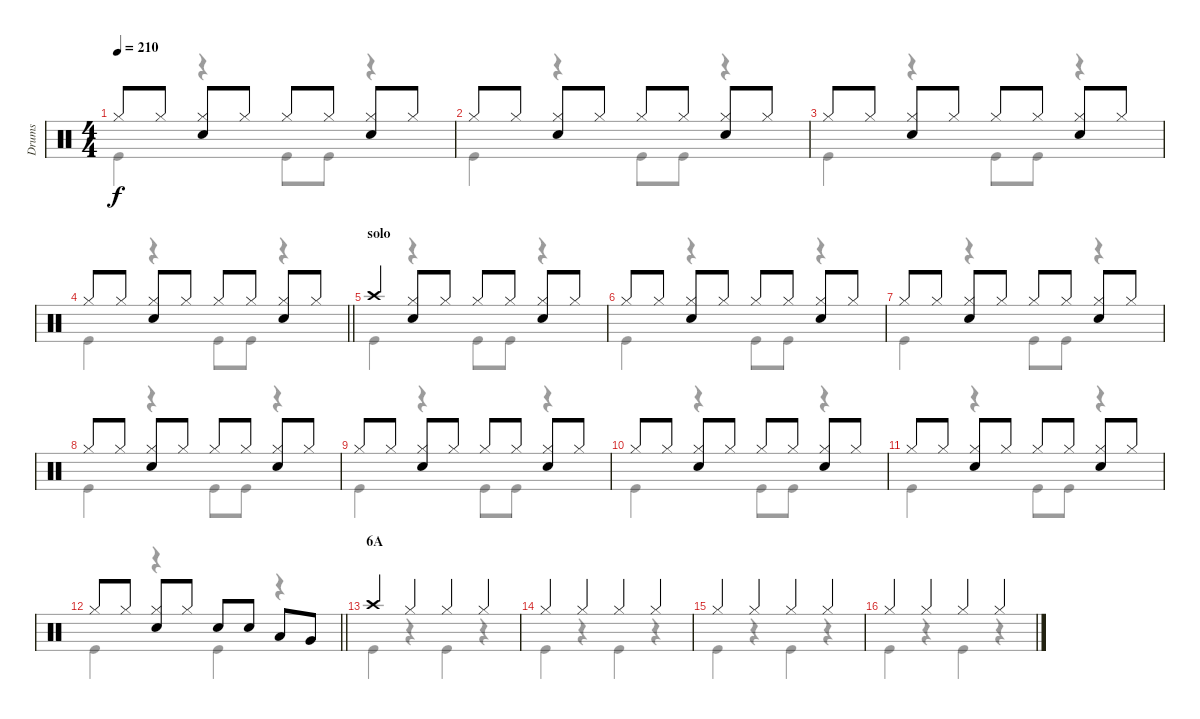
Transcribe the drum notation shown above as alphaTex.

\track ("Drums" "Drums") {instrument percussion}
\staff {score}
\articulation defaults
\voice
\ts (4 4)
\tempo 210
\clef neutral
\ks c "Hi-Hat (closed)".8{dy f} "Hi-Hat (closed)".8
("Hi-Hat (closed)" "Snare (hit) 2").8 "Hi-Hat (closed)".8 "Hi-Hat (closed)".8 "Hi-Hat (closed)".8 ("Hi-Hat (closed)" "Snare (hit) 2").8 "Hi-Hat (closed)".8 |
"Hi-Hat (closed)".8 "Hi-Hat (closed)".8 ("Hi-Hat (closed)" "Snare (hit) 2").8 "Hi-Hat (closed)".8 "Hi-Hat (closed)".8 "Hi-Hat (closed)".8 ("Hi-Hat (closed)" "Snare (hit) 2").8 "Hi-Hat (closed)".8 |
"Hi-Hat (closed)".8 "Hi-Hat (closed)".8 ("Hi-Hat (closed)" "Snare (hit) 2").8 "Hi-Hat (closed)".8 "Hi-Hat (closed)".8 "Hi-Hat (closed)".8 ("Hi-Hat (closed)" "Snare (hit) 2").8 "Hi-Hat (closed)".8 |
\barLineRight lightlight "Hi-Hat (closed)".8 "Hi-Hat (closed)".8
("Hi-Hat (closed)" "Snare (hit) 2").8 "Hi-Hat (closed)".8 "Hi-Hat (closed)".8 "Hi-Hat (closed)".8 ("Hi-Hat (closed)" "Snare (hit) 2").8 "Hi-Hat (closed)".8 |
\section ("" "solo")
"Crash high (hit)".4 ("Hi-Hat (closed)" "Snare (hit) 2").8 "Hi-Hat (closed)".8 "Hi-Hat (closed)".8 "Hi-Hat (closed)".8 ("Hi-Hat (closed)" "Snare (hit) 2").8 "Hi-Hat (closed)".8 |
"Hi-Hat (closed)".8 "Hi-Hat (closed)".8 ("Hi-Hat (closed)" "Snare (hit) 2").8 "Hi-Hat (closed)".8 "Hi-Hat (closed)".8 "Hi-Hat (closed)".8 ("Hi-Hat (closed)" "Snare (hit) 2").8 "Hi-Hat (closed)".8 |
"Hi-Hat (closed)".8 "Hi-Hat (closed)".8 ("Hi-Hat (closed)" "Snare (hit) 2").8 "Hi-Hat (closed)".8 "Hi-Hat (closed)".8 "Hi-Hat (closed)".8 ("Hi-Hat (closed)" "Snare (hit) 2").8 "Hi-Hat (closed)".8 |
"Hi-Hat (closed)".8 "Hi-Hat (closed)".8 ("Hi-Hat (closed)" "Snare (hit) 2").8 "Hi-Hat (closed)".8 "Hi-Hat (closed)".8 "Hi-Hat (closed)".8 ("Hi-Hat (closed)" "Snare (hit) 2").8 "Hi-Hat (closed)".8 |
"Hi-Hat (closed)".8 "Hi-Hat (closed)".8 ("Hi-Hat (closed)" "Snare (hit) 2").8 "Hi-Hat (closed)".8 "Hi-Hat (closed)".8 "Hi-Hat (closed)".8 ("Hi-Hat (closed)" "Snare (hit) 2").8 "Hi-Hat (closed)".8 |
"Hi-Hat (closed)".8 "Hi-Hat (closed)".8 ("Hi-Hat (closed)" "Snare (hit) 2").8 "Hi-Hat (closed)".8 "Hi-Hat (closed)".8 "Hi-Hat (closed)".8 ("Hi-Hat (closed)" "Snare (hit) 2").8 "Hi-Hat (closed)".8 |
"Hi-Hat (closed)".8 "Hi-Hat (closed)".8 ("Hi-Hat (closed)" "Snare (hit) 2").8 "Hi-Hat (closed)".8 "Hi-Hat (closed)".8 "Hi-Hat (closed)".8 ("Hi-Hat (closed)" "Snare (hit) 2").8 "Hi-Hat (closed)".8 |
\barLineRight lightlight "Hi-Hat (closed)".8 "Hi-Hat (closed)".8
("Hi-Hat (closed)" "Snare (hit) 2").8 "Hi-Hat (closed)".8 "Snare (hit) 2".8 "Snare (hit) 2".8 "Low Tom (hit)".8 "Very Low Tom (hit)".8 |
\section ("" "6A")
"Crash high (hit)".4 "Hi-Hat (closed)".4 "Hi-Hat (closed)".4 "Hi-Hat (closed)".4 |
"Hi-Hat (closed)".4 "Hi-Hat (closed)".4 "Hi-Hat (closed)".4 "Hi-Hat (closed)".4 |
"Hi-Hat (closed)".4 "Hi-Hat (closed)".4 "Hi-Hat (closed)".4 "Hi-Hat (closed)".4 |
"Hi-Hat (closed)".4 "Hi-Hat (closed)".4 "Hi-Hat (closed)".4 "Hi-Hat (closed)".4
\voice
\clef neutral
\ottava regular
\simile none
\ks c "Kick (hit)".4{dy f}
r.4 "Kick (hit)".8 "Kick (hit)".8 r.4 |
"Kick (hit)".4 r.4 "Kick (hit)".8 "Kick (hit)".8 r.4 |
"Kick (hit)".4 r.4 "Kick (hit)".8 "Kick (hit)".8 r.4 |
\barLineRight lightlight "Kick (hit)".4
r.4 "Kick (hit)".8 "Kick (hit)".8 r.4 |
"Kick (hit)".4 r.4 "Kick (hit)".8 "Kick (hit)".8 r.4 |
"Kick (hit)".4 r.4 "Kick (hit)".8 "Kick (hit)".8 r.4 |
"Kick (hit)".4 r.4 "Kick (hit)".8 "Kick (hit)".8 r.4 |
"Kick (hit)".4 r.4 "Kick (hit)".8 "Kick (hit)".8 r.4 |
"Kick (hit)".4 r.4 "Kick (hit)".8 "Kick (hit)".8 r.4 |
"Kick (hit)".4 r.4 "Kick (hit)".8 "Kick (hit)".8 r.4 |
"Kick (hit)".4 r.4 "Kick (hit)".8 "Kick (hit)".8 r.4 |
\barLineRight lightlight "Kick (hit)".4
r.4 "Kick (hit)".4 r.4 |
"Kick (hit)".4 r.4 "Kick (hit)".4 r.4 |
"Kick (hit)".4 r.4 "Kick (hit)".4 r.4 |
"Kick (hit)".4 r.4 "Kick (hit)".4 r.4 |
"Kick (hit)".4 r.4 "Kick (hit)".4 r.4
